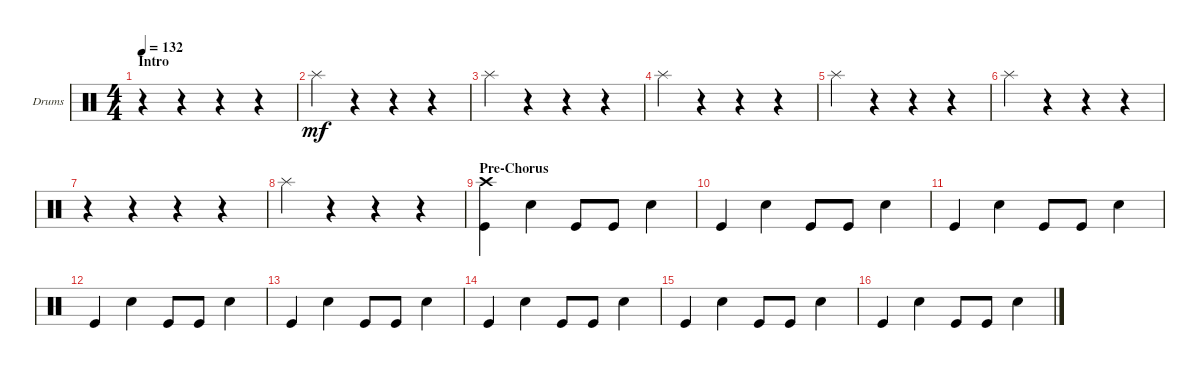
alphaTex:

\defaultSystemsLayout 4
\bracketExtendMode groupsimilarinstruments
\firstSystemTrackNameOrientation horizontal
\otherSystemsTrackNameOrientation horizontal
\track ("Drumkit" "Drums") {instrument percussion}
\staff {score}
\articulation defaults
\ts (4 4)
\section ("" "Intro")
\tempo 132
\clef neutral
\scale
0.472222
\ks c
r.4{dy mf} r.4 r.4 r.4 |
\scale
0.263889 "Splash (hit)".4 r.4 r.4 r.4 |
\scale
0.263889 "Splash (hit)".4 r.4 r.4 r.4 |
\scale
0.333333 "Splash (hit)".4 r.4 r.4 r.4 |
\scale
0.333333 "Splash (hit)".4 r.4 r.4 r.4 |
\scale
0.333333 "Splash (hit)".4 r.4 r.4 r.4 |
\scale
0.333333 r.4 r.4 r.4 r.4 |
\scale
0.333333 "Splash (hit)".4 r.4 r.4 r.4 |
\section ("" "Pre-Chorus")
\scale
0.333333 ("Crash high (hit)" "Kick (hit)").4 "Snare (hit) 2".4 "Kick (hit)".8 "Kick (hit)".8 "Snare (hit) 2".4 |
\scale
0.333333 "Kick (hit)".4 "Snare (hit) 2".4 "Kick (hit)".8 "Kick (hit)".8 "Snare (hit) 2".4 |
\scale
0.333333 "Kick (hit)".4 "Snare (hit) 2".4 "Kick (hit)".8 "Kick (hit)".8 "Snare (hit) 2".4 |
\scale
0.333333 "Kick (hit)".4 "Snare (hit) 2".4 "Kick (hit)".8 "Kick (hit)".8 "Snare (hit) 2".4 |
\scale
0.333333 "Kick (hit)".4 "Snare (hit) 2".4 "Kick (hit)".8 "Kick (hit)".8 "Snare (hit) 2".4 |
\scale
0.333333 "Kick (hit)".4 "Snare (hit) 2".4 "Kick (hit)".8 "Kick (hit)".8 "Snare (hit) 2".4 |
\scale
0.333333 "Kick (hit)".4 "Snare (hit) 2".4 "Kick (hit)".8 "Kick (hit)".8 "Snare (hit) 2".4 |
\scale
0.333333 "Kick (hit)".4 "Snare (hit) 2".4 "Kick (hit)".8 "Kick (hit)".8 "Snare (hit) 2".4
